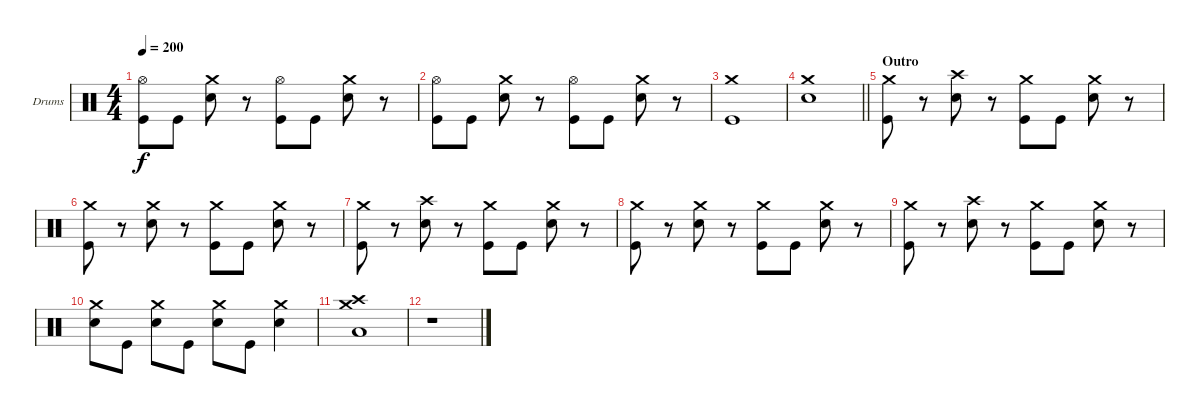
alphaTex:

\bracketExtendMode groupsimilarinstruments
\firstSystemTrackNameOrientation horizontal
\otherSystemsTrackNameOrientation horizontal
\track ("Drumkit" "Drums") {instrument percussion}
\staff {score}
\articulation defaults
\ts (4 4)
\tempo 200
\clef neutral
\ks c
("Kick (hit)" "Hi-Hat (open)").8{dy f} "Kick (hit)".8 ("Crash medium (hit)" "Snare (hit) 2").8 r.8 ("Kick (hit)" "Hi-Hat (open)").8 "Kick (hit)".8 ("Crash medium (hit)" "Snare (hit) 2").8 r.8 |
("Kick (hit)" "Hi-Hat (open)").8 "Kick (hit)".8 ("Crash medium (hit)" "Snare (hit) 2").8 r.8 ("Kick (hit)" "Hi-Hat (open)").8 "Kick (hit)".8 ("Crash medium (hit)" "Snare (hit) 2").8 r.8 |
("Kick (hit)" "Crash medium (hit)").1 |
\barLineRight lightlight
("Crash medium (hit)" "Snare (hit) 2").1 |
\section ("" "Outro")
("Crash medium (hit)" "Kick (hit)").8 r.8 ("Snare (hit) 2" "Crash high (hit)").8 r.8 ("Crash medium (hit)" "Kick (hit)").8 "Kick (hit)".8 ("Crash medium (hit)" "Snare (hit) 2").8 r.8 |
("Crash medium (hit)" "Kick (hit)").8 r.8 ("Crash medium (hit)" "Snare (hit) 2").8 r.8 ("Crash medium (hit)" "Kick (hit)").8 "Kick (hit)".8 ("Crash medium (hit)" "Snare (hit) 2").8 r.8 |
("Crash medium (hit)" "Kick (hit)").8 r.8 ("Snare (hit) 2" "Crash high (hit)").8 r.8 ("Crash medium (hit)" "Kick (hit)").8 "Kick (hit)".8 ("Crash medium (hit)" "Snare (hit) 2").8 r.8 |
("Crash medium (hit)" "Kick (hit)").8 r.8 ("Crash medium (hit)" "Snare (hit) 2").8 r.8 ("Crash medium (hit)" "Kick (hit)").8 "Kick (hit)".8 ("Crash medium (hit)" "Snare (hit) 2").8 r.8 |
("Crash medium (hit)" "Kick (hit)").8 r.8 ("Snare (hit) 2" "Crash high (hit)").8 r.8 ("Crash medium (hit)" "Kick (hit)").8 "Kick (hit)".8 ("Crash medium (hit)" "Snare (hit) 2").8 r.8 |
("Crash medium (hit)" "Snare (hit) 2").8 "Kick (hit)".8 ("Crash medium (hit)" "Snare (hit) 2").8 "Kick (hit)".8 ("Crash medium (hit)" "Snare (hit) 2").8 "Kick (hit)".8 ("Crash medium (hit)" "Snare (hit) 2").4 |
("Crash medium (hit)" "Crash high (hit)" "Low Tom (hit)").1 |
r.1
